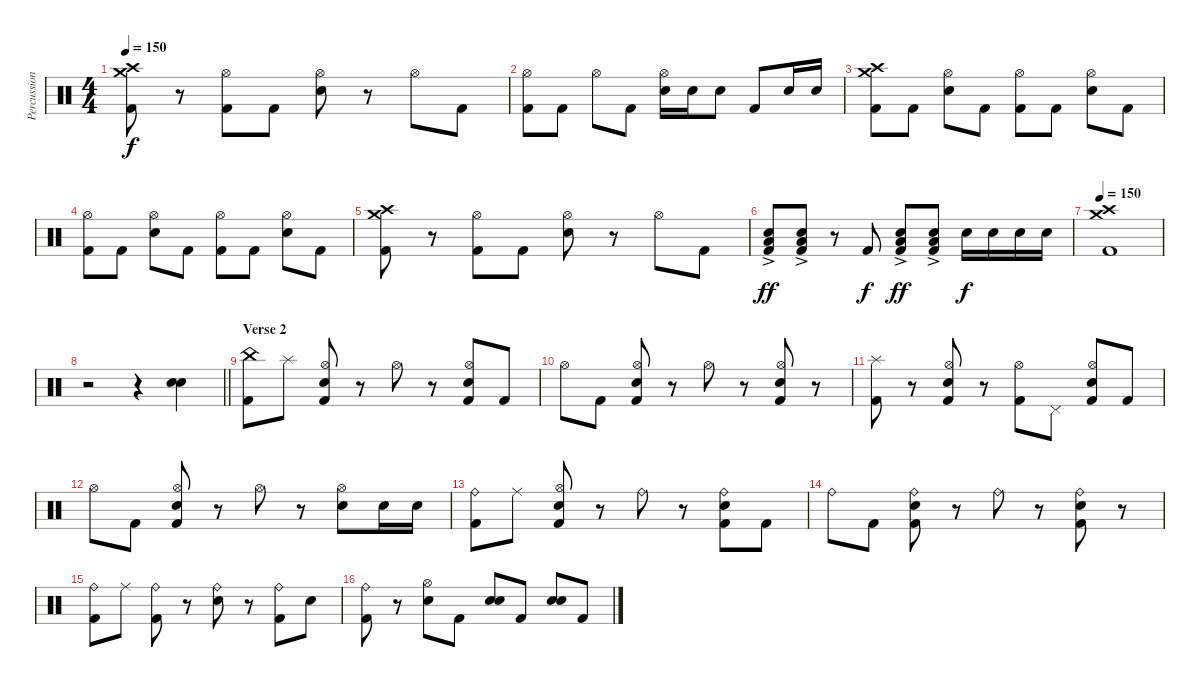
\track ("Percussion" "Percussion") {instrument percussion}
\staff {score}
\articulation defaults
\ts (4 4)
\tempo 150
\clef neutral
\ks c
("Crash high (hit)" "Crash medium (hit)" "Kick (hit) 2").8{dy f} r.8 ("Hi-Hat (open)" "Kick (hit) 2").8 "Kick (hit) 2".8 ("Hi-Hat (open)" "Electric Snare (hit)").8 r.8 "Hi-Hat (open)".8 "Kick (hit) 2".8 |
("Hi-Hat (open)" "Kick (hit) 2").8 "Kick (hit) 2".8 "Hi-Hat (open)".8 "Kick (hit) 2".8 ("Hi-Hat (open)" "Electric Snare (hit)").16 "Electric Snare (hit)".16 "Electric Snare (hit)".8 "Kick (hit) 2".8 "Electric Snare (hit)".16 "Electric Snare (hit)".16 |
("Crash high (hit)" "Crash medium (hit)" "Kick (hit) 2").8 "Kick (hit) 2".8 ("Hi-Hat (open)" "Electric Snare (hit)").8 "Kick (hit) 2".8 ("Hi-Hat (open)" "Kick (hit) 2").8 "Kick (hit) 2".8 ("Hi-Hat (open)" "Electric Snare (hit)").8 "Kick (hit) 2".8 |
("Hi-Hat (open)" "Kick (hit) 2").8 "Kick (hit) 2".8 ("Hi-Hat (open)" "Electric Snare (hit)").8 "Kick (hit) 2".8 ("Hi-Hat (open)" "Kick (hit) 2").8 "Kick (hit) 2".8 ("Hi-Hat (open)" "Electric Snare (hit)").8 "Kick (hit) 2".8 |
("Crash high (hit)" "Crash medium (hit)" "Kick (hit) 2").8 r.8 ("Hi-Hat (open)" "Kick (hit) 2").8 "Kick (hit) 2".8 ("Hi-Hat (open)" "Electric Snare (hit)").8 r.8 "Hi-Hat (open)".8 "Kick (hit) 2".8 |
("Electric Snare (hit)"{ac} "Low Floor Tom (hit)"{ac} "Kick (hit) 2"{ac}).8{dy ff} ("Electric Snare (hit)"{ac} "Low Floor Tom (hit)"{ac} "Kick (hit) 2"{ac}).8 r.8 "Kick (hit) 2".8{dy f} ("Electric Snare (hit)"{ac} "Low Floor Tom (hit)"{ac} "Kick (hit) 2"{ac}).8{dy ff} ("Electric Snare (hit)"{ac} "Low Floor Tom (hit)"{ac} "Kick (hit) 2"{ac}).8 "Electric Snare (hit)".16{dy f} "Electric Snare (hit)".16 "Electric Snare (hit)".16 "Electric Snare (hit)".16 |
\tempo 150
("Crash high (hit)" "Crash medium (hit)" "Kick (hit) 2").1 |
\barLineRight lightlight
r.2 r.4 ("Electric Snare (hit)" "Electric Snare (hit)").4{bu 240} |
\section ("" "Verse 2")
("China (hit)" "Kick (hit) 2").8 "Splash (hit)".8 ("Hi-Hat (open)" "Electric Snare (hit)" "Kick (hit) 2").8 r.8 "Hi-Hat (open)".8 r.8 ("Hi-Hat (open)" "Electric Snare (hit)" "Kick (hit) 2").8 "Kick (hit) 2".8 |
"Hi-Hat (open)".8 "Kick (hit) 2".8 ("Hi-Hat (open)" "Electric Snare (hit)" "Kick (hit) 2").8 r.8 "Hi-Hat (open)".8 r.8 ("Hi-Hat (open)" "Electric Snare (hit)" "Kick (hit) 2").8 r.8 |
("Splash (hit)" "Kick (hit) 2").8 r.8 ("Hi-Hat (open)" "Electric Snare (hit)" "Kick (hit) 2").8 r.8 ("Hi-Hat (open)" "Kick (hit) 2").8 "Pedal Hi-Hat (hit)".8 ("Hi-Hat (open)" "Electric Snare (hit)" "Kick (hit) 2").8 "Kick (hit) 2".8 |
"Hi-Hat (open)".8 "Kick (hit) 2".8 ("Hi-Hat (open)" "Electric Snare (hit)" "Kick (hit) 2").8 r.8 "Hi-Hat (open)".8 r.8 ("Hi-Hat (open)" "Electric Snare (hit)").8 "Electric Snare (hit)".16 "Electric Snare (hit)".16 |
("Ride (bell)" "Kick (hit) 2").8 "Ride (middle)".8 ("Hi-Hat (open)" "Electric Snare (hit)" "Kick (hit) 2").8 r.8 "Ride (bell)".8 r.8 ("Ride (bell)" "Electric Snare (hit)" "Kick (hit) 2").8 "Kick (hit) 2".8 |
"Ride (bell)".8 "Kick (hit) 2".8 ("Ride (bell)" "Electric Snare (hit)" "Kick (hit) 2").8 r.8 "Ride (bell)".8 r.8 ("Ride (bell)" "Electric Snare (hit)" "Kick (hit) 2").8 r.8 |
("Ride (bell)" "Kick (hit) 2").8 "Ride (middle)".8 ("Ride (bell)" "Kick (hit) 2").8 r.8 ("Ride (bell)" "Electric Snare (hit)").8 r.8 ("Ride (bell)" "Kick (hit) 2").8 "Electric Snare (hit)".8 |
("Ride (bell)" "Kick (hit) 2").8 r.8 ("Hi-Hat (open)" "Electric Snare (hit)").8 "Kick (hit) 2".8 ("Electric Snare (hit)" "Electric Snare (hit)").8{bu 240} "Kick (hit) 2".8 ("Electric Snare (hit)" "Electric Snare (hit)").8{bu 240} "Kick (hit) 2".8
